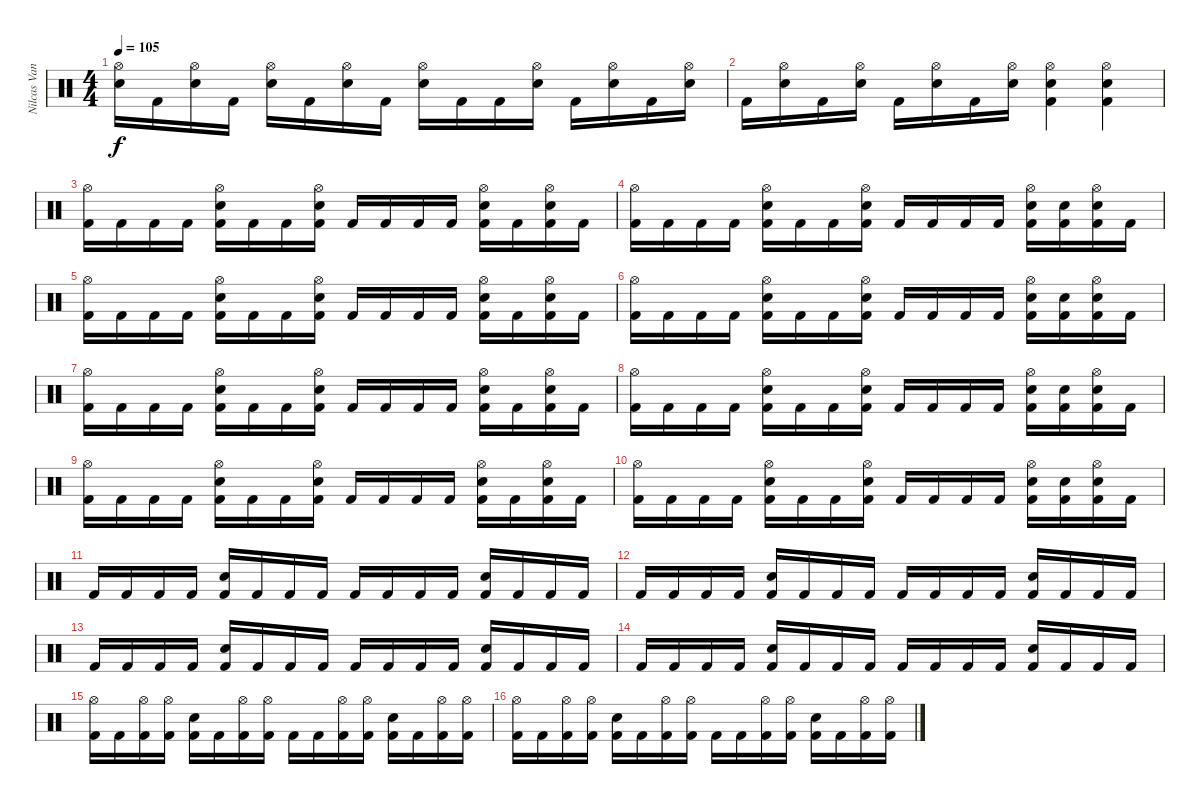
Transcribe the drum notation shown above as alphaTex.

\track ("Nilcas Vant" "Nilcas Van") {instrument percussion}
\staff {score}
\articulation defaults
\ts (4 4)
\tempo 105
\clef neutral
\ks c
("Hi-Hat (open)" "Electric Snare (hit)").16{dy f} "Kick (hit) 2".16 ("Hi-Hat (open)" "Electric Snare (hit)").16 "Kick (hit) 2".16 ("Hi-Hat (open)" "Electric Snare (hit)").16 "Kick (hit) 2".16 ("Hi-Hat (open)" "Electric Snare (hit)").16 "Kick (hit) 2".16 ("Hi-Hat (open)" "Electric Snare (hit)").16 "Kick (hit) 2".16 "Kick (hit) 2".16 ("Hi-Hat (open)" "Electric Snare (hit)").16 "Kick (hit) 2".16 ("Hi-Hat (open)" "Electric Snare (hit)").16 "Kick (hit) 2".16 ("Hi-Hat (open)" "Electric Snare (hit)").16 |
"Kick (hit) 2".16 ("Hi-Hat (open)" "Electric Snare (hit)").16 "Kick (hit) 2".16 ("Hi-Hat (open)" "Electric Snare (hit)").16 "Kick (hit) 2".16 ("Hi-Hat (open)" "Electric Snare (hit)").16 "Kick (hit) 2".16 ("Hi-Hat (open)" "Electric Snare (hit)").16 ("Hi-Hat (open)" "Electric Snare (hit)" "Kick (hit) 2").4 ("Hi-Hat (open)" "Electric Snare (hit)" "Kick (hit) 2").4 |
("Hi-Hat (open)" "Kick (hit) 2").16 "Kick (hit) 2".16 "Kick (hit) 2".16 "Kick (hit) 2".16 ("Hi-Hat (open)" "Electric Snare (hit)" "Kick (hit) 2").16 "Kick (hit) 2".16 "Kick (hit) 2".16 ("Hi-Hat (open)" "Electric Snare (hit)" "Kick (hit) 2").16 "Kick (hit) 2".16 "Kick (hit) 2".16 "Kick (hit) 2".16 "Kick (hit) 2".16 ("Hi-Hat (open)" "Electric Snare (hit)" "Kick (hit) 2").16 "Kick (hit) 2".16 ("Hi-Hat (open)" "Electric Snare (hit)" "Kick (hit) 2").16 "Kick (hit) 2".16 |
("Hi-Hat (open)" "Kick (hit) 2").16 "Kick (hit) 2".16 "Kick (hit) 2".16 "Kick (hit) 2".16 ("Hi-Hat (open)" "Electric Snare (hit)" "Kick (hit) 2").16 "Kick (hit) 2".16 "Kick (hit) 2".16 ("Hi-Hat (open)" "Electric Snare (hit)" "Kick (hit) 2").16 "Kick (hit) 2".16 "Kick (hit) 2".16 "Kick (hit) 2".16 "Kick (hit) 2".16 ("Hi-Hat (open)" "Electric Snare (hit)" "Kick (hit) 2").16 ("Electric Snare (hit)" "Kick (hit) 2").16 ("Hi-Hat (open)" "Electric Snare (hit)" "Kick (hit) 2").16 "Kick (hit) 2".16 |
("Hi-Hat (open)" "Kick (hit) 2").16 "Kick (hit) 2".16 "Kick (hit) 2".16 "Kick (hit) 2".16 ("Hi-Hat (open)" "Electric Snare (hit)" "Kick (hit) 2").16 "Kick (hit) 2".16 "Kick (hit) 2".16 ("Hi-Hat (open)" "Electric Snare (hit)" "Kick (hit) 2").16 "Kick (hit) 2".16 "Kick (hit) 2".16 "Kick (hit) 2".16 "Kick (hit) 2".16 ("Hi-Hat (open)" "Electric Snare (hit)" "Kick (hit) 2").16 "Kick (hit) 2".16 ("Hi-Hat (open)" "Electric Snare (hit)" "Kick (hit) 2").16 "Kick (hit) 2".16 |
("Hi-Hat (open)" "Kick (hit) 2").16 "Kick (hit) 2".16 "Kick (hit) 2".16 "Kick (hit) 2".16 ("Hi-Hat (open)" "Electric Snare (hit)" "Kick (hit) 2").16 "Kick (hit) 2".16 "Kick (hit) 2".16 ("Hi-Hat (open)" "Electric Snare (hit)" "Kick (hit) 2").16 "Kick (hit) 2".16 "Kick (hit) 2".16 "Kick (hit) 2".16 "Kick (hit) 2".16 ("Hi-Hat (open)" "Electric Snare (hit)" "Kick (hit) 2").16 ("Electric Snare (hit)" "Kick (hit) 2").16 ("Hi-Hat (open)" "Electric Snare (hit)" "Kick (hit) 2").16 "Kick (hit) 2".16 |
("Hi-Hat (open)" "Kick (hit) 2").16 "Kick (hit) 2".16 "Kick (hit) 2".16 "Kick (hit) 2".16 ("Hi-Hat (open)" "Electric Snare (hit)" "Kick (hit) 2").16 "Kick (hit) 2".16 "Kick (hit) 2".16 ("Hi-Hat (open)" "Electric Snare (hit)" "Kick (hit) 2").16 "Kick (hit) 2".16 "Kick (hit) 2".16 "Kick (hit) 2".16 "Kick (hit) 2".16 ("Hi-Hat (open)" "Electric Snare (hit)" "Kick (hit) 2").16 "Kick (hit) 2".16 ("Hi-Hat (open)" "Electric Snare (hit)" "Kick (hit) 2").16 "Kick (hit) 2".16 |
("Hi-Hat (open)" "Kick (hit) 2").16 "Kick (hit) 2".16 "Kick (hit) 2".16 "Kick (hit) 2".16 ("Hi-Hat (open)" "Electric Snare (hit)" "Kick (hit) 2").16 "Kick (hit) 2".16 "Kick (hit) 2".16 ("Hi-Hat (open)" "Electric Snare (hit)" "Kick (hit) 2").16 "Kick (hit) 2".16 "Kick (hit) 2".16 "Kick (hit) 2".16 "Kick (hit) 2".16 ("Hi-Hat (open)" "Electric Snare (hit)" "Kick (hit) 2").16 ("Electric Snare (hit)" "Kick (hit) 2").16 ("Hi-Hat (open)" "Electric Snare (hit)" "Kick (hit) 2").16 "Kick (hit) 2".16 |
("Hi-Hat (open)" "Kick (hit) 2").16 "Kick (hit) 2".16 "Kick (hit) 2".16 "Kick (hit) 2".16 ("Hi-Hat (open)" "Electric Snare (hit)" "Kick (hit) 2").16 "Kick (hit) 2".16 "Kick (hit) 2".16 ("Hi-Hat (open)" "Electric Snare (hit)" "Kick (hit) 2").16 "Kick (hit) 2".16 "Kick (hit) 2".16 "Kick (hit) 2".16 "Kick (hit) 2".16 ("Hi-Hat (open)" "Electric Snare (hit)" "Kick (hit) 2").16 "Kick (hit) 2".16 ("Hi-Hat (open)" "Electric Snare (hit)" "Kick (hit) 2").16 "Kick (hit) 2".16 |
("Hi-Hat (open)" "Kick (hit) 2").16 "Kick (hit) 2".16 "Kick (hit) 2".16 "Kick (hit) 2".16 ("Hi-Hat (open)" "Electric Snare (hit)" "Kick (hit) 2").16 "Kick (hit) 2".16 "Kick (hit) 2".16 ("Hi-Hat (open)" "Electric Snare (hit)" "Kick (hit) 2").16 "Kick (hit) 2".16 "Kick (hit) 2".16 "Kick (hit) 2".16 "Kick (hit) 2".16 ("Hi-Hat (open)" "Electric Snare (hit)" "Kick (hit) 2").16 ("Electric Snare (hit)" "Kick (hit) 2").16 ("Hi-Hat (open)" "Electric Snare (hit)" "Kick (hit) 2").16 "Kick (hit) 2".16 |
"Kick (hit) 2".16 "Kick (hit) 2".16 "Kick (hit) 2".16 "Kick (hit) 2".16 ("Electric Snare (hit)" "Kick (hit) 2").16 "Kick (hit) 2".16 "Kick (hit) 2".16 "Kick (hit) 2".16 "Kick (hit) 2".16 "Kick (hit) 2".16 "Kick (hit) 2".16 "Kick (hit) 2".16 ("Electric Snare (hit)" "Kick (hit) 2").16 "Kick (hit) 2".16 "Kick (hit) 2".16 "Kick (hit) 2".16 |
"Kick (hit) 2".16 "Kick (hit) 2".16 "Kick (hit) 2".16 "Kick (hit) 2".16 ("Electric Snare (hit)" "Kick (hit) 2").16 "Kick (hit) 2".16 "Kick (hit) 2".16 "Kick (hit) 2".16 "Kick (hit) 2".16 "Kick (hit) 2".16 "Kick (hit) 2".16 "Kick (hit) 2".16 ("Electric Snare (hit)" "Kick (hit) 2").16 "Kick (hit) 2".16 "Kick (hit) 2".16 "Kick (hit) 2".16 |
"Kick (hit) 2".16 "Kick (hit) 2".16 "Kick (hit) 2".16 "Kick (hit) 2".16 ("Electric Snare (hit)" "Kick (hit) 2").16 "Kick (hit) 2".16 "Kick (hit) 2".16 "Kick (hit) 2".16 "Kick (hit) 2".16 "Kick (hit) 2".16 "Kick (hit) 2".16 "Kick (hit) 2".16 ("Electric Snare (hit)" "Kick (hit) 2").16 "Kick (hit) 2".16 "Kick (hit) 2".16 "Kick (hit) 2".16 |
"Kick (hit) 2".16 "Kick (hit) 2".16 "Kick (hit) 2".16 "Kick (hit) 2".16 ("Electric Snare (hit)" "Kick (hit) 2").16 "Kick (hit) 2".16 "Kick (hit) 2".16 "Kick (hit) 2".16 "Kick (hit) 2".16 "Kick (hit) 2".16 "Kick (hit) 2".16 "Kick (hit) 2".16 ("Electric Snare (hit)" "Kick (hit) 2").16 "Kick (hit) 2".16 "Kick (hit) 2".16 "Kick (hit) 2".16 |
("Hi-Hat (open)" "Kick (hit) 2").16 "Kick (hit) 2".16 ("Hi-Hat (open)" "Kick (hit) 2").16 ("Hi-Hat (open)" "Kick (hit) 2").16 ("Electric Snare (hit)" "Kick (hit) 2").16 "Kick (hit) 2".16 ("Hi-Hat (open)" "Kick (hit) 2").16 ("Hi-Hat (open)" "Kick (hit) 2").16 "Kick (hit) 2".16 "Kick (hit) 2".16 ("Hi-Hat (open)" "Kick (hit) 2").16 ("Hi-Hat (open)" "Kick (hit) 2").16 ("Electric Snare (hit)" "Kick (hit) 2").16 "Kick (hit) 2".16 ("Hi-Hat (open)" "Kick (hit) 2").16 ("Hi-Hat (open)" "Kick (hit) 2").16 |
("Hi-Hat (open)" "Kick (hit) 2").16 "Kick (hit) 2".16 ("Hi-Hat (open)" "Kick (hit) 2").16 ("Hi-Hat (open)" "Kick (hit) 2").16 ("Electric Snare (hit)" "Kick (hit) 2").16 "Kick (hit) 2".16 ("Hi-Hat (open)" "Kick (hit) 2").16 ("Hi-Hat (open)" "Kick (hit) 2").16 "Kick (hit) 2".16 "Kick (hit) 2".16 ("Hi-Hat (open)" "Kick (hit) 2").16 ("Hi-Hat (open)" "Kick (hit) 2").16 ("Electric Snare (hit)" "Kick (hit) 2").16 "Kick (hit) 2".16 ("Hi-Hat (open)" "Kick (hit) 2").16 ("Hi-Hat (open)" "Kick (hit) 2").16
